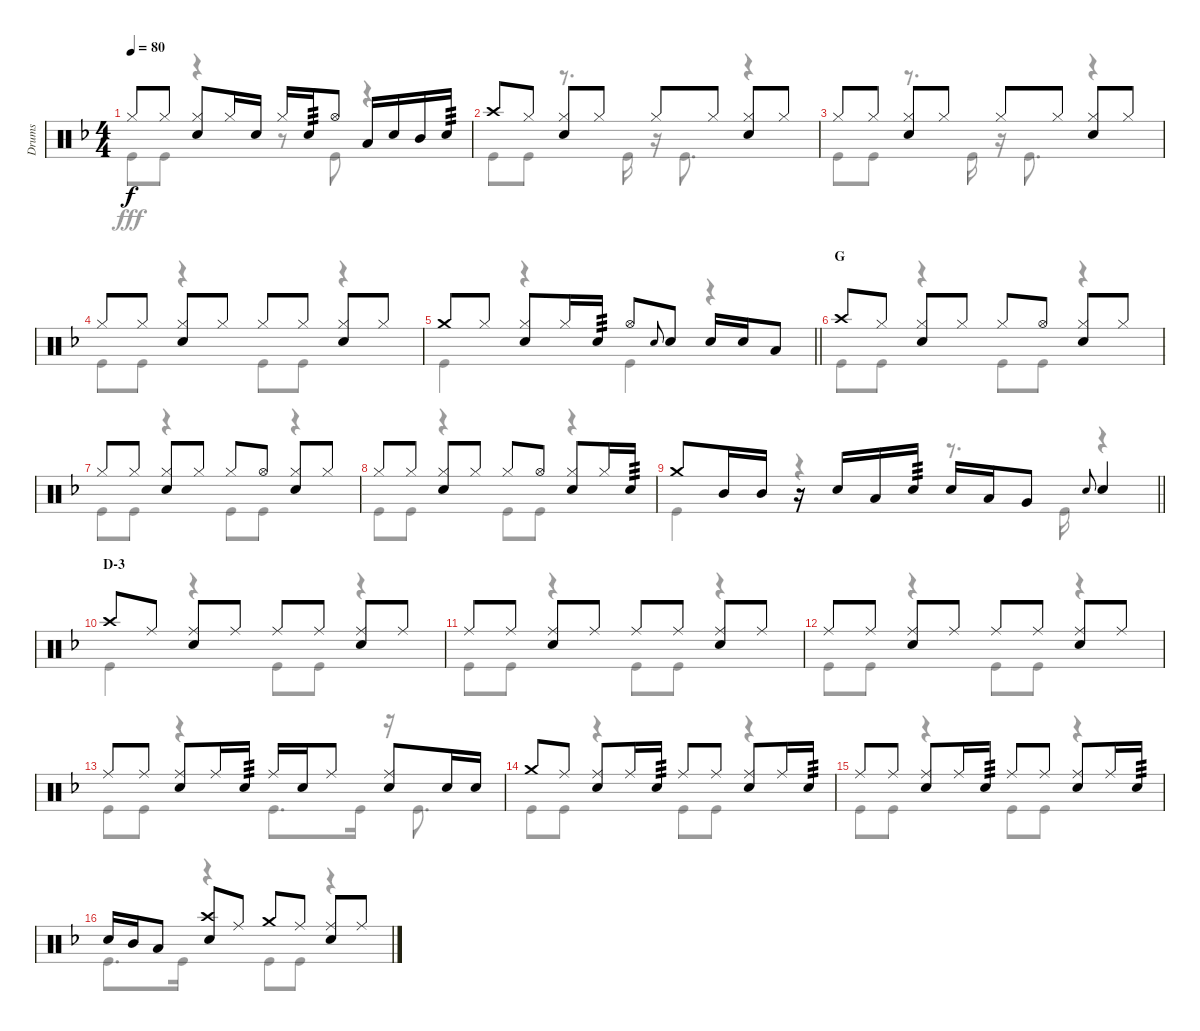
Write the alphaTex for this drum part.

\track ("Drums" "Drums") {instrument percussion}
\staff {score}
\articulation defaults
\voice
\ts (4 4)
\tempo 80
\clef neutral
\ks f "Hi-Hat (closed)".8{dy f} "Hi-Hat (closed)".8
("Hi-Hat (closed)" "Snare (hit) 2").8 "Hi-Hat (closed)".16 "Snare (hit) 2".16 "Hi-Hat (closed)".16 "Snare (hit) 2".16{tp 3} "Hi-Hat (open)".8 "Low Tom (hit)".16 "Snare (hit) 2".16 "Mid Tom (hit)".16 "Snare (hit) 2".16{tp 3} |
"Crash high (hit)".8 "Hi-Hat (closed)".8 ("Hi-Hat (closed)" "Snare (hit) 2").8 "Hi-Hat (closed)".8 "Hi-Hat (closed)".8 "Hi-Hat (closed)".8 ("Hi-Hat (closed)" "Snare (hit) 2").8 "Hi-Hat (closed)".8 |
"Hi-Hat (closed)".8 "Hi-Hat (closed)".8 ("Hi-Hat (closed)" "Snare (hit) 2").8 "Hi-Hat (closed)".8 "Hi-Hat (closed)".8 "Hi-Hat (closed)".8 ("Hi-Hat (closed)" "Snare (hit) 2").8 "Hi-Hat (closed)".8 |
"Hi-Hat (closed)".8 "Hi-Hat (closed)".8 ("Hi-Hat (closed)" "Snare (hit) 2").8 "Hi-Hat (closed)".8 "Hi-Hat (closed)".8 "Hi-Hat (closed)".8 ("Hi-Hat (closed)" "Snare (hit) 2").8 "Hi-Hat (closed)".8 |
\barLineRight lightlight "Crash medium (hit)".8 "Hi-Hat (closed)".8
("Hi-Hat (closed)" "Snare (hit) 2").8 "Hi-Hat (closed)".16 "Snare (hit) 2".16{tp 3} "Hi-Hat (open)".8 "Snare (hit) 2".8{gr onbeat} "Snare (hit) 2".8 "Snare (hit) 2".16 "Snare (hit) 2".16 "Low Tom (hit)".8 |
\section ("" "G")
"Crash high (hit)".8 "Hi-Hat (closed)".8 ("Hi-Hat (closed)" "Snare (hit) 2").8 "Hi-Hat (closed)".8 "Hi-Hat (closed)".8 "Hi-Hat (open)".8 ("Hi-Hat (closed)" "Snare (hit) 2").8 "Hi-Hat (closed)".8 |
"Hi-Hat (closed)".8 "Hi-Hat (closed)".8 ("Hi-Hat (closed)" "Snare (hit) 2").8 "Hi-Hat (closed)".8 "Hi-Hat (closed)".8 "Hi-Hat (open)".8 ("Hi-Hat (closed)" "Snare (hit) 2").8 "Hi-Hat (closed)".8 |
"Hi-Hat (closed)".8 "Hi-Hat (closed)".8 ("Hi-Hat (closed)" "Snare (hit) 2").8 "Hi-Hat (closed)".8 "Hi-Hat (closed)".8 "Hi-Hat (open)".8 ("Hi-Hat (closed)" "Snare (hit) 2").8 "Hi-Hat (closed)".16 "Snare (hit) 2".16{tp 3} |
\barLineRight lightlight "Crash medium (hit)".8 "Mid Tom (hit)".16 "Mid Tom (hit)".16
r.16 "Snare (hit) 2".16 "Low Tom (hit)".16 "Snare (hit) 2".16{tp 3} "Snare (hit) 2".16 "Low Tom (hit)".16 "Very Low Tom (hit)".8 "Snare (hit) 2".8{gr onbeat} "Snare (hit) 2".4 |
\section ("" "D-3")
"Crash high (hit)".8 "Ride (middle)".8 ("Ride (middle)" "Snare (hit) 2").8 "Ride (middle)".8 "Ride (middle)".8 "Ride (middle)".8 ("Ride (middle)" "Snare (hit) 2").8 "Ride (middle)".8 |
"Ride (middle)".8 "Ride (middle)".8 ("Ride (middle)" "Snare (hit) 2").8 "Ride (middle)".8 "Ride (middle)".8 "Ride (middle)".8 ("Ride (middle)" "Snare (hit) 2").8 "Ride (middle)".8 |
"Ride (middle)".8 "Ride (middle)".8 ("Ride (middle)" "Snare (hit) 2").8 "Ride (middle)".8 "Ride (middle)".8 "Ride (middle)".8 ("Ride (middle)" "Snare (hit) 2").8 "Ride (middle)".8 |
"Ride (middle)".8 "Ride (middle)".8 ("Ride (middle)" "Snare (hit) 2").8 "Ride (middle)".16 "Snare (hit) 2".16{tp 3} "Ride (middle)".16 "Snare (hit) 2".16 "Ride (middle)".8 ("Ride (middle)" "Snare (hit) 2").8 "Snare (hit) 2".16 "Snare (hit) 2".16 |
"Crash medium (hit)".8 "Ride (middle)".8 ("Ride (middle)" "Snare (hit) 2").8 "Ride (middle)".16 "Snare (hit) 2".16{tp 3} "Ride (middle)".8 "Ride (middle)".8 ("Ride (middle)" "Snare (hit) 2").8 "Ride (middle)".16 "Snare (hit) 2".16{tp 3} |
"Ride (middle)".8 "Ride (middle)".8 ("Ride (middle)" "Snare (hit) 2").8 "Ride (middle)".16 "Snare (hit) 2".16{tp 3} "Ride (middle)".8 "Ride (middle)".8 ("Ride (middle)" "Snare (hit) 2").8 "Ride (middle)".16 "Snare (hit) 2".16{tp 3} |
"Snare (hit) 2".16 "Mid Tom (hit)".16 "Low Tom (hit)".8 ("Crash high (hit)" "Snare (hit) 2").8 "Ride (middle)".8 "Crash medium (hit)".8 "Ride (middle)".8 ("Ride (middle)" "Snare (hit) 2").8 "Ride (middle)".8
\voice
\clef neutral
\ottava regular
\simile none
\ks f "Kick (hit)".8{dy fff} "Kick (hit)".8
r.4 r.8 "Kick (hit)".8 r.4 |
"Kick (hit)".8 "Kick (hit)".8 r.8{d} "Kick (hit)".16 r.16 "Kick (hit)".8{d} r.4 |
"Kick (hit)".8 "Kick (hit)".8 r.8{d} "Kick (hit)".16 r.16 "Kick (hit)".8{d} r.4 |
"Kick (hit)".8 "Kick (hit)".8 r.4 "Kick (hit)".8 "Kick (hit)".8 r.4 |
\barLineRight lightlight "Kick (hit)".4
r.4 "Kick (hit)".4 r.4 |
"Kick (hit)".8 "Kick (hit)".8 r.4 "Kick (hit)".8 "Kick (hit)".8 r.4 |
"Kick (hit)".8 "Kick (hit)".8 r.4 "Kick (hit)".8 "Kick (hit)".8 r.4 |
"Kick (hit)".8 "Kick (hit)".8 r.4 "Kick (hit)".8 "Kick (hit)".8 r.4 |
\barLineRight lightlight "Kick (hit)".4
r.4 r.8{d} "Kick (hit)".16 r.4 |
"Kick (hit)".4 r.4 "Kick (hit)".8 "Kick (hit)".8 r.4 |
"Kick (hit)".8 "Kick (hit)".8 r.4 "Kick (hit)".8 "Kick (hit)".8 r.4 |
"Kick (hit)".8 "Kick (hit)".8 r.4 "Kick (hit)".8 "Kick (hit)".8 r.4 |
"Kick (hit)".8 "Kick (hit)".8 r.4 "Kick (hit)".8{d} "Kick (hit)".16 r.16 "Kick (hit)".8{d} |
"Kick (hit)".8 "Kick (hit)".8 r.4 "Kick (hit)".8 "Kick (hit)".8 r.4 |
"Kick (hit)".8 "Kick (hit)".8 r.4 "Kick (hit)".8 "Kick (hit)".8 r.4 |
"Kick (hit)".8{d} "Kick (hit)".16 r.4 "Kick (hit)".8 "Kick (hit)".8 r.4
